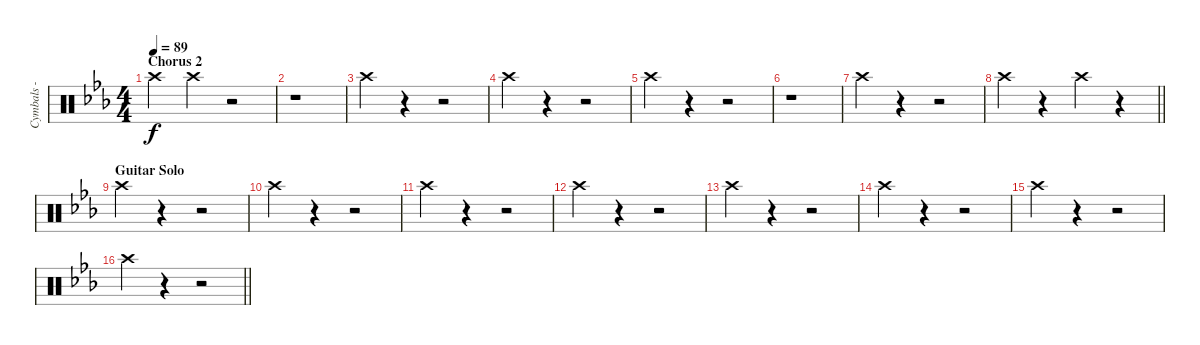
\track ("Cymbals - crash" "Cymbals - ") {instrument percussion}
\staff {score}
\articulation defaults
\ts (4 4)
\section ("" "Chorus 2")
\tempo 89
\clef neutral
\ks eb "Crash high (hit)".4{dy f} "Crash high (hit)".4
r.2 |
r.1 |
"Crash high (hit)".4 r.4 r.2 |
"Crash high (hit)".4 r.4 r.2 |
"Crash high (hit)".4 r.4 r.2 |
r.1 |
"Crash high (hit)".4 r.4 r.2 |
\barLineRight lightlight "Crash high (hit)".4
r.4 "Crash high (hit)".4 r.4 |
\section ("" "Guitar Solo")
"Crash high (hit)".4 r.4 r.2 |
"Crash high (hit)".4 r.4 r.2 |
"Crash high (hit)".4 r.4 r.2 |
"Crash high (hit)".4 r.4 r.2 |
"Crash high (hit)".4 r.4 r.2 |
"Crash high (hit)".4 r.4 r.2 |
"Crash high (hit)".4 r.4 r.2 |
\barLineRight lightlight "Crash high (hit)".4
r.4 r.2
